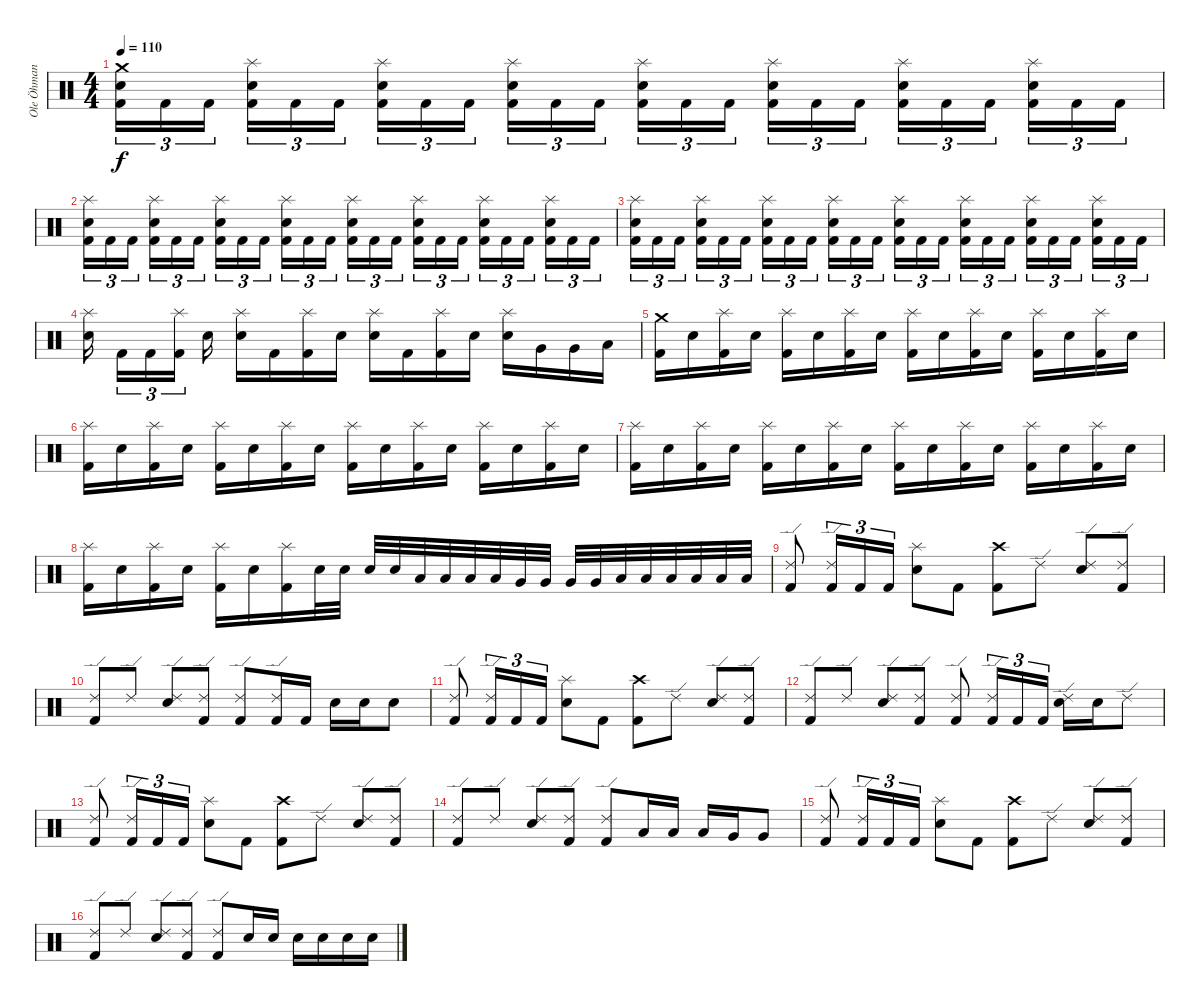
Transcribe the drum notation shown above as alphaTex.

\track ("Ole Öhman" "Ole Öhman") {instrument percussion}
\staff {score}
\articulation defaults
\ts (4 4)
\tempo 110
\clef neutral
\ks c
("Crash medium (hit)" "Electric Snare (hit)" "Kick (hit) 2").16{tu (3 2) dy f} "Kick (hit) 2".16{tu (3 2)} "Kick (hit) 2".16{tu (3 2)} ("Splash (hit)" "Electric Snare (hit)" "Kick (hit) 2").16{tu (3 2)} "Kick (hit) 2".16{tu (3 2)} "Kick (hit) 2".16{tu (3 2)} ("Splash (hit)" "Electric Snare (hit)" "Kick (hit) 2").16{tu (3 2)} "Kick (hit) 2".16{tu (3 2)} "Kick (hit) 2".16{tu (3 2)} ("Splash (hit)" "Electric Snare (hit)" "Kick (hit) 2").16{tu (3 2)} "Kick (hit) 2".16{tu (3 2)} "Kick (hit) 2".16{tu (3 2)} ("Splash (hit)" "Electric Snare (hit)" "Kick (hit) 2").16{tu (3 2)} "Kick (hit) 2".16{tu (3 2)} "Kick (hit) 2".16{tu (3 2)} ("Splash (hit)" "Electric Snare (hit)" "Kick (hit) 2").16{tu (3 2)} "Kick (hit) 2".16{tu (3 2)} "Kick (hit) 2".16{tu (3 2)} ("Splash (hit)" "Electric Snare (hit)" "Kick (hit) 2").16{tu (3 2)} "Kick (hit) 2".16{tu (3 2)} "Kick (hit) 2".16{tu (3 2)} ("Splash (hit)" "Electric Snare (hit)" "Kick (hit) 2").16{tu (3 2)} "Kick (hit) 2".16{tu (3 2)} "Kick (hit) 2".16{tu (3 2)} |
("Splash (hit)" "Electric Snare (hit)" "Kick (hit) 2").16{tu (3 2)} "Kick (hit) 2".16{tu (3 2)} "Kick (hit) 2".16{tu (3 2)} ("Splash (hit)" "Electric Snare (hit)" "Kick (hit) 2").16{tu (3 2)} "Kick (hit) 2".16{tu (3 2)} "Kick (hit) 2".16{tu (3 2)} ("Splash (hit)" "Electric Snare (hit)" "Kick (hit) 2").16{tu (3 2)} "Kick (hit) 2".16{tu (3 2)} "Kick (hit) 2".16{tu (3 2)} ("Splash (hit)" "Electric Snare (hit)" "Kick (hit) 2").16{tu (3 2)} "Kick (hit) 2".16{tu (3 2)} "Kick (hit) 2".16{tu (3 2)} ("Splash (hit)" "Electric Snare (hit)" "Kick (hit) 2").16{tu (3 2)} "Kick (hit) 2".16{tu (3 2)} "Kick (hit) 2".16{tu (3 2)} ("Splash (hit)" "Electric Snare (hit)" "Kick (hit) 2").16{tu (3 2)} "Kick (hit) 2".16{tu (3 2)} "Kick (hit) 2".16{tu (3 2)} ("Splash (hit)" "Electric Snare (hit)" "Kick (hit) 2").16{tu (3 2)} "Kick (hit) 2".16{tu (3 2)} "Kick (hit) 2".16{tu (3 2)} ("Splash (hit)" "Electric Snare (hit)" "Kick (hit) 2").16{tu (3 2)} "Kick (hit) 2".16{tu (3 2)} "Kick (hit) 2".16{tu (3 2)} |
("Splash (hit)" "Electric Snare (hit)" "Kick (hit) 2").16{tu (3 2)} "Kick (hit) 2".16{tu (3 2)} "Kick (hit) 2".16{tu (3 2)} ("Splash (hit)" "Electric Snare (hit)" "Kick (hit) 2").16{tu (3 2)} "Kick (hit) 2".16{tu (3 2)} "Kick (hit) 2".16{tu (3 2)} ("Splash (hit)" "Electric Snare (hit)" "Kick (hit) 2").16{tu (3 2)} "Kick (hit) 2".16{tu (3 2)} "Kick (hit) 2".16{tu (3 2)} ("Splash (hit)" "Electric Snare (hit)" "Kick (hit) 2").16{tu (3 2)} "Kick (hit) 2".16{tu (3 2)} "Kick (hit) 2".16{tu (3 2)} ("Splash (hit)" "Electric Snare (hit)" "Kick (hit) 2").16{tu (3 2)} "Kick (hit) 2".16{tu (3 2)} "Kick (hit) 2".16{tu (3 2)} ("Splash (hit)" "Electric Snare (hit)" "Kick (hit) 2").16{tu (3 2)} "Kick (hit) 2".16{tu (3 2)} "Kick (hit) 2".16{tu (3 2)} ("Splash (hit)" "Electric Snare (hit)" "Kick (hit) 2").16{tu (3 2)} "Kick (hit) 2".16{tu (3 2)} "Kick (hit) 2".16{tu (3 2)} ("Splash (hit)" "Electric Snare (hit)" "Kick (hit) 2").16{tu (3 2)} "Kick (hit) 2".16{tu (3 2)} "Kick (hit) 2".16{tu (3 2)} |
("Splash (hit)" "Electric Snare (hit)").16 "Kick (hit) 2".16{tu (3 2)} "Kick (hit) 2".16{tu (3 2)} ("Splash (hit)" "Kick (hit) 2").16{tu (3 2)} "Electric Snare (hit)".16 ("Splash (hit)" "Electric Snare (hit)").16 "Kick (hit) 2".16 ("Splash (hit)" "Kick (hit) 2").16 "Electric Snare (hit)".16 ("Splash (hit)" "Electric Snare (hit)").16 "Kick (hit) 2".16 ("Splash (hit)" "Kick (hit) 2").16 "Electric Snare (hit)".16 ("Splash (hit)" "Electric Snare (hit)").16 "Very Low Tom (hit)".16 "Very Low Tom (hit)".16 "Low Floor Tom (hit)".16 |
("Crash medium (hit)" "Kick (hit) 2").16 "Electric Snare (hit)".16 ("Splash (hit)" "Kick (hit) 2").16 "Electric Snare (hit)".16 ("Splash (hit)" "Kick (hit) 2").16 "Electric Snare (hit)".16 ("Splash (hit)" "Kick (hit) 2").16 "Electric Snare (hit)".16 ("Splash (hit)" "Kick (hit) 2").16 "Electric Snare (hit)".16 ("Splash (hit)" "Kick (hit) 2").16 "Electric Snare (hit)".16 ("Splash (hit)" "Kick (hit) 2").16 "Electric Snare (hit)".16 ("Splash (hit)" "Kick (hit) 2").16 "Electric Snare (hit)".16 |
("Splash (hit)" "Kick (hit) 2").16 "Electric Snare (hit)".16 ("Splash (hit)" "Kick (hit) 2").16 "Electric Snare (hit)".16 ("Splash (hit)" "Kick (hit) 2").16 "Electric Snare (hit)".16 ("Splash (hit)" "Kick (hit) 2").16 "Electric Snare (hit)".16 ("Splash (hit)" "Kick (hit) 2").16 "Electric Snare (hit)".16 ("Splash (hit)" "Kick (hit) 2").16 "Electric Snare (hit)".16 ("Splash (hit)" "Kick (hit) 2").16 "Electric Snare (hit)".16 ("Splash (hit)" "Kick (hit) 2").16 "Electric Snare (hit)".16 |
("Splash (hit)" "Kick (hit) 2").16 "Electric Snare (hit)".16 ("Splash (hit)" "Kick (hit) 2").16 "Electric Snare (hit)".16 ("Splash (hit)" "Kick (hit) 2").16 "Electric Snare (hit)".16 ("Splash (hit)" "Kick (hit) 2").16 "Electric Snare (hit)".16 ("Splash (hit)" "Kick (hit) 2").16 "Electric Snare (hit)".16 ("Splash (hit)" "Kick (hit) 2").16 "Electric Snare (hit)".16 ("Splash (hit)" "Kick (hit) 2").16 "Electric Snare (hit)".16 ("Splash (hit)" "Kick (hit) 2").16 "Electric Snare (hit)".16 |
("Splash (hit)" "Kick (hit) 2").16 "Electric Snare (hit)".16 ("Splash (hit)" "Kick (hit) 2").16 "Electric Snare (hit)".16 ("Splash (hit)" "Kick (hit) 2").16 "Electric Snare (hit)".16 ("Splash (hit)" "Kick (hit) 2").16 "Electric Snare (hit)".32 "Electric Snare (hit)".32 "Electric Snare (hit)".32 "Electric Snare (hit)".32 "Low Tom (hit)".32 "Low Tom (hit)".32 "Low Tom (hit)".32 "Low Tom (hit)".32 "Very Low Tom (hit)".32 "Very Low Tom (hit)".32 "Very Low Tom (hit)".32 "Very Low Tom (hit)".32 "Low Floor Tom (hit)".32 "Low Floor Tom (hit)".32 "Low Floor Tom (hit)".32 "Low Floor Tom (hit)".32 "Low Floor Tom (hit)".32 "Low Floor Tom (hit)".32 |
("Ride (edge) 2" "Kick (hit) 2").8 ("Ride (edge) 2" "Kick (hit) 2").16{tu (3 2)} "Kick (hit) 2".16{tu (3 2)} "Kick (hit) 2".16{tu (3 2)} ("Splash (hit)" "Electric Snare (hit)").8 "Kick (hit) 2".8 ("Crash high (hit)" "Kick (hit) 2").8 "Ride (edge) 2".8 ("Ride (edge) 2" "Electric Snare (hit)").8 ("Ride (edge) 2" "Kick (hit) 2").8 |
("Ride (edge) 2" "Kick (hit) 2").8 "Ride (edge) 2".8 ("Ride (edge) 2" "Electric Snare (hit)").8 ("Ride (edge) 2" "Kick (hit) 2").8 ("Ride (edge) 2" "Kick (hit) 2").8 ("Ride (edge) 2" "Kick (hit) 2").16 "Kick (hit) 2".16 "Electric Snare (hit)".16 "Electric Snare (hit)".16 "Electric Snare (hit)".8 |
("Ride (edge) 2" "Kick (hit) 2").8 ("Ride (edge) 2" "Kick (hit) 2").16{tu (3 2)} "Kick (hit) 2".16{tu (3 2)} "Kick (hit) 2".16{tu (3 2)} ("Splash (hit)" "Electric Snare (hit)").8 "Kick (hit) 2".8 ("Crash high (hit)" "Kick (hit) 2").8 "Ride (edge) 2".8 ("Ride (edge) 2" "Electric Snare (hit)").8 ("Ride (edge) 2" "Kick (hit) 2").8 |
("Ride (edge) 2" "Kick (hit) 2").8 "Ride (edge) 2".8 ("Ride (edge) 2" "Electric Snare (hit)").8 ("Ride (edge) 2" "Kick (hit) 2").8 ("Ride (edge) 2" "Kick (hit) 2").8 ("Ride (edge) 2" "Kick (hit) 2").16{tu (3 2)} "Kick (hit) 2".16{tu (3 2)} "Kick (hit) 2".16{tu (3 2)} ("Ride (edge) 2" "Electric Snare (hit)").16 "Electric Snare (hit)".16 "Ride (edge) 2".8 |
("Ride (edge) 2" "Kick (hit) 2").8 ("Ride (edge) 2" "Kick (hit) 2").16{tu (3 2)} "Kick (hit) 2".16{tu (3 2)} "Kick (hit) 2".16{tu (3 2)} ("Splash (hit)" "Electric Snare (hit)").8 "Kick (hit) 2".8 ("Crash high (hit)" "Kick (hit) 2").8 "Ride (edge) 2".8 ("Ride (edge) 2" "Electric Snare (hit)").8 ("Ride (edge) 2" "Kick (hit) 2").8 |
("Ride (edge) 2" "Kick (hit) 2").8 "Ride (edge) 2".8 ("Ride (edge) 2" "Electric Snare (hit)").8 ("Ride (edge) 2" "Kick (hit) 2").8 ("Ride (edge) 2" "Kick (hit) 2").8 "Low Floor Tom (hit)".16 "Low Floor Tom (hit)".16 "Low Floor Tom (hit)".16 "Very Low Tom (hit)".16 "Very Low Tom (hit)".8 |
("Ride (edge) 2" "Kick (hit) 2").8 ("Ride (edge) 2" "Kick (hit) 2").16{tu (3 2)} "Kick (hit) 2".16{tu (3 2)} "Kick (hit) 2".16{tu (3 2)} ("Splash (hit)" "Electric Snare (hit)").8 "Kick (hit) 2".8 ("Crash high (hit)" "Kick (hit) 2").8 "Ride (edge) 2".8 ("Ride (edge) 2" "Electric Snare (hit)").8 ("Ride (edge) 2" "Kick (hit) 2").8 |
("Ride (edge) 2" "Kick (hit) 2").8 "Ride (edge) 2".8 ("Ride (edge) 2" "Electric Snare (hit)").8 ("Ride (edge) 2" "Kick (hit) 2").8 ("Ride (edge) 2" "Kick (hit) 2").8 "Electric Snare (hit)".16 "Electric Snare (hit)".16 "Electric Snare (hit)".16 "Electric Snare (hit)".16 "Electric Snare (hit)".16 "Electric Snare (hit)".16
